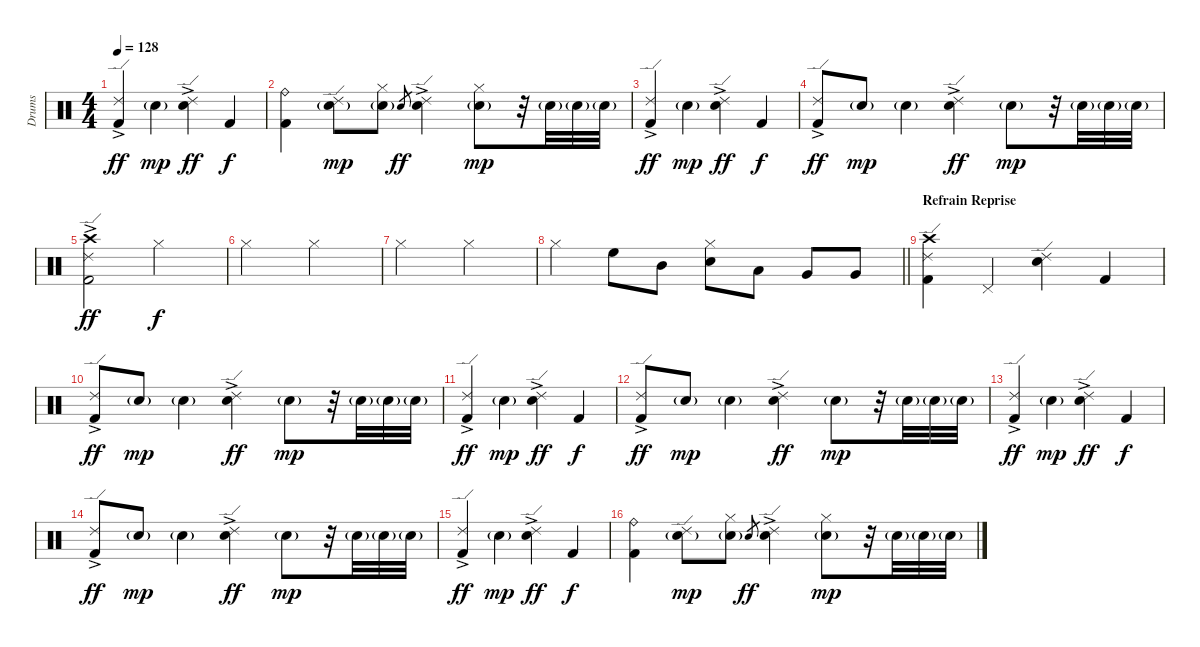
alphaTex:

\track ("Drums" "Drums") {instrument percussion}
\staff {score}
\articulation defaults
\ts (4 4)
\tempo 128
\clef neutral
\ks c
("Kick (hit) 2"{ac} "Ride (edge) 2").4{dy ff} "Snare (hit) 2"{g}.4{dy mp} ("Snare (hit) 2"{ac} "Ride (edge) 2").4{dy ff} "Kick (hit) 2".4{dy f} |
("Ride (bell)" "Kick (hit) 2").4 ("Snare (hit) 2"{g} "Ride (edge) 2").8{dy mp} ("Snare (hit) 2"{g} "Hi-Hat (closed)").8 "Snare (hit) 2".8{gr dy ff} ("Snare (hit) 2"{ac} "Ride (edge) 2").4 ("Snare (hit) 2"{g} "Hi-Hat (closed)").8{dy mp} r.32 "Snare (hit) 2"{g}.32 "Snare (hit) 2"{g}.32 "Snare (hit) 2"{g}.32 |
("Kick (hit) 2"{ac} "Ride (edge) 2").4{dy ff} "Snare (hit) 2"{g}.4{dy mp} ("Snare (hit) 2"{ac} "Ride (edge) 2").4{dy ff} "Kick (hit) 2".4{dy f} |
("Kick (hit) 2" "Ride (edge) 2"{ac}).8{dy ff} "Snare (hit) 2"{g}.8{dy mp} "Snare (hit) 2"{g}.4 ("Snare (hit) 2"{ac} "Ride (edge) 2").4{dy ff} "Snare (hit) 2"{g}.8{dy mp} r.32 "Snare (hit) 2"{g}.32 "Snare (hit) 2"{g}.32 "Snare (hit) 2"{g}.32 |
("Crash high (hit)" "Kick (hit) 2"{ac} "Ride (edge) 2").2{dy ff} "Hi-Hat (closed)".2{dy f} |
"Hi-Hat (closed)".2 "Hi-Hat (closed)".2 |
"Hi-Hat (closed)".2 "Hi-Hat (closed)".2 |
\barLineRight lightlight "Hi-Hat (closed)".4 "High Floor Tom (hit)".8 "Mid Tom (hit)".8
("Snare (hit) 2" "Hi-Hat (closed)").8 "Low Tom (hit)".8 "Very Low Tom (hit)".8 "Very Low Tom (hit)".8 |
\section ("" "Refrain Reprise")
("Crash high (hit)" "Kick (hit) 2" "Ride (edge) 2").4 "Pedal Hi-Hat (hit)".4 ("Snare (hit) 2" "Ride (edge) 2").4 "Kick (hit) 2".4 |
("Kick (hit) 2" "Ride (edge) 2"{ac}).8{dy ff} "Snare (hit) 2"{g}.8{dy mp} "Snare (hit) 2"{g}.4 ("Snare (hit) 2"{ac} "Ride (edge) 2").4{dy ff} "Snare (hit) 2"{g}.8{dy mp} r.32 "Snare (hit) 2"{g}.32 "Snare (hit) 2"{g}.32 "Snare (hit) 2"{g}.32 |
("Kick (hit) 2"{ac} "Ride (edge) 2").4{dy ff} "Snare (hit) 2"{g}.4{dy mp} ("Snare (hit) 2"{ac} "Ride (edge) 2").4{dy ff} "Kick (hit) 2".4{dy f} |
("Kick (hit) 2" "Ride (edge) 2"{ac}).8{dy ff} "Snare (hit) 2"{g}.8{dy mp} "Snare (hit) 2"{g}.4 ("Snare (hit) 2"{ac} "Ride (edge) 2").4{dy ff} "Snare (hit) 2"{g}.8{dy mp} r.32 "Snare (hit) 2"{g}.32 "Snare (hit) 2"{g}.32 "Snare (hit) 2"{g}.32 |
("Kick (hit) 2"{ac} "Ride (edge) 2").4{dy ff} "Snare (hit) 2"{g}.4{dy mp} ("Snare (hit) 2"{ac} "Ride (edge) 2").4{dy ff} "Kick (hit) 2".4{dy f} |
("Kick (hit) 2" "Ride (edge) 2"{ac}).8{dy ff} "Snare (hit) 2"{g}.8{dy mp} "Snare (hit) 2"{g}.4 ("Snare (hit) 2"{ac} "Ride (edge) 2").4{dy ff} "Snare (hit) 2"{g}.8{dy mp} r.32 "Snare (hit) 2"{g}.32 "Snare (hit) 2"{g}.32 "Snare (hit) 2"{g}.32 |
("Kick (hit) 2"{ac} "Ride (edge) 2").4{dy ff} "Snare (hit) 2"{g}.4{dy mp} ("Snare (hit) 2"{ac} "Ride (edge) 2").4{dy ff} "Kick (hit) 2".4{dy f} |
("Ride (bell)" "Kick (hit) 2").4 ("Snare (hit) 2"{g} "Ride (edge) 2").8{dy mp} ("Snare (hit) 2"{g} "Hi-Hat (closed)").8 "Snare (hit) 2".8{gr dy ff} ("Snare (hit) 2"{ac} "Ride (edge) 2").4 ("Snare (hit) 2"{g} "Hi-Hat (closed)").8{dy mp} r.32 "Snare (hit) 2"{g}.32 "Snare (hit) 2"{g}.32 "Snare (hit) 2"{g}.32
